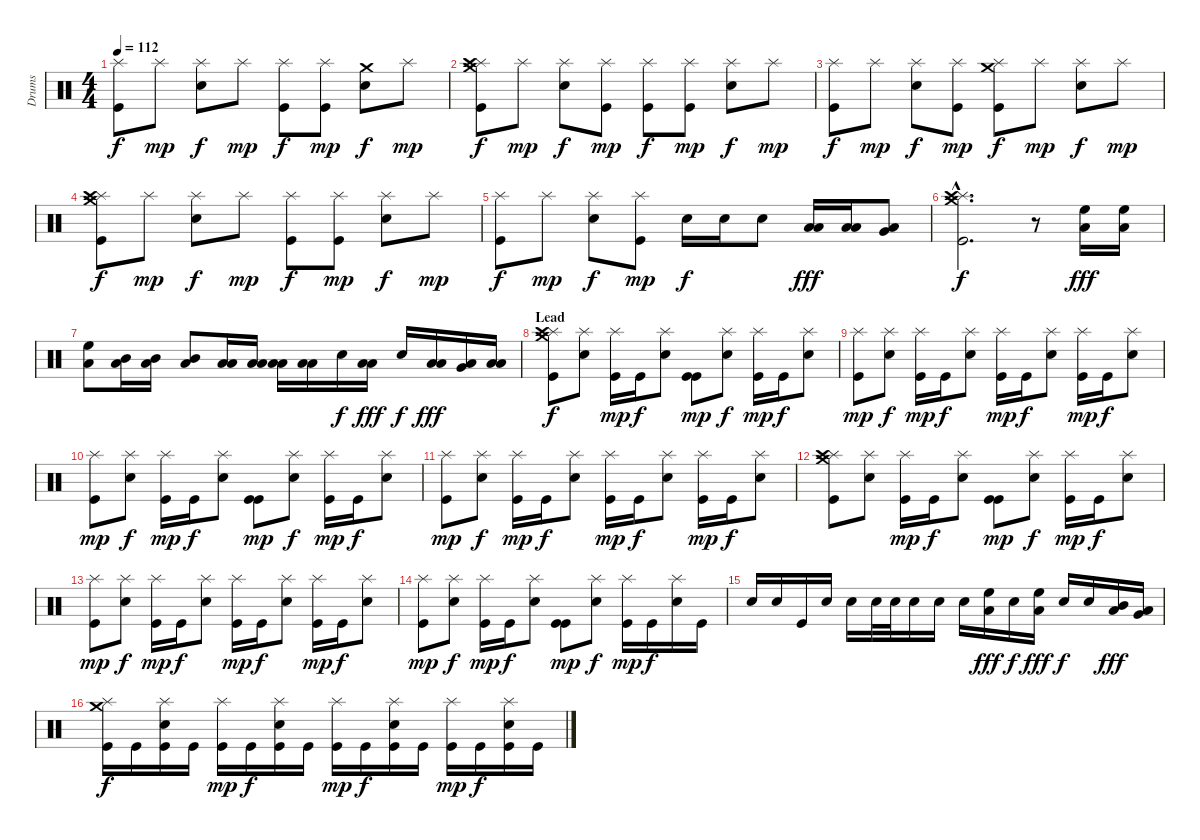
\track ("Drums" "Drums") {instrument percussion}
\staff {score}
\articulation defaults
\ts (4 4)
\tempo 112
\clef neutral
\ks c
("Splash (hit)" "Kick (hit)").8{dy f} "Splash (hit)".8{dy mp} ("Splash (hit)" "Electric Snare (hit)").8{dy f} "Splash (hit)".8{dy mp} ("Splash (hit)" "Kick (hit)").8{dy f} ("Splash (hit)" "Kick (hit)").8{dy mp} ("Crash medium (hit)" "Electric Snare (hit)").8{dy f} "Splash (hit)".8{dy mp} |
("Crash medium (hit)" "Splash (hit)" "Crash high (hit)" "Kick (hit)").8{dy f} "Splash (hit)".8{dy mp} ("Splash (hit)" "Electric Snare (hit)").8{dy f} ("Splash (hit)" "Kick (hit)").8{dy mp} ("Splash (hit)" "Kick (hit)").8{dy f} ("Splash (hit)" "Kick (hit)").8{dy mp} ("Splash (hit)" "Electric Snare (hit)").8{dy f} "Splash (hit)".8{dy mp} |
("Splash (hit)" "Kick (hit)").8{dy f} "Splash (hit)".8{dy mp} ("Splash (hit)" "Electric Snare (hit)").8{dy f} ("Splash (hit)" "Kick (hit)").8{dy mp} ("Crash medium (hit)" "Splash (hit)" "Kick (hit)").8{dy f} "Splash (hit)".8{dy mp} ("Splash (hit)" "Electric Snare (hit)").8{dy f} "Splash (hit)".8{dy mp} |
("Crash medium (hit)" "Splash (hit)" "Crash high (hit)" "Kick (hit)").8{dy f} "Splash (hit)".8{dy mp} ("Splash (hit)" "Electric Snare (hit)").8{dy f} "Splash (hit)".8{dy mp} ("Splash (hit)" "Kick (hit)").8{dy f} ("Splash (hit)" "Kick (hit)").8{dy mp} ("Splash (hit)" "Electric Snare (hit)").8{dy f} "Splash (hit)".8{dy mp} |
("Splash (hit)" "Kick (hit)").8{dy f} "Splash (hit)".8{dy mp} ("Splash (hit)" "Electric Snare (hit)").8{dy f} ("Splash (hit)" "Kick (hit)").8{dy mp} "Electric Snare (hit)".16{dy f} "Electric Snare (hit)".16 "Electric Snare (hit)".8 ("Low Floor Tom (hit)" "Low Tom (hit)").16{dy fff} ("Low Floor Tom (hit)" "Low Tom (hit)").16 ("Low Floor Tom (hit)" "Very Low Tom (hit)").8 |
("Crash medium (hit)"{hac} "Splash (hit)"{hac} "Crash high (hit)"{hac} "Kick (hit)"{hac}).2{d dy f} r.8 ("Low Floor Tom (hit)" "High Floor Tom (hit)").16{dy fff} ("Low Floor Tom (hit)" "High Floor Tom (hit)").16 |
("Low Floor Tom (hit)" "High Floor Tom (hit)").8 ("Low Floor Tom (hit)" "Mid Tom (hit)").16 ("Low Floor Tom (hit)" "Mid Tom (hit)").16 ("Low Floor Tom (hit)" "Mid Tom (hit)").8 ("Low Floor Tom (hit)" "Low Tom (hit)").16 ("Low Floor Tom (hit)" "Low Tom (hit)").16 ("Low Floor Tom (hit)" "Low Tom (hit)").16 ("Low Floor Tom (hit)" "Low Tom (hit)").16 "Electric Snare (hit)".16{dy f} ("Low Floor Tom (hit)" "Low Tom (hit)").16{dy fff} "Electric Snare (hit)".16{dy f} ("Low Floor Tom (hit)" "Low Tom (hit)").16{dy fff} ("Low Floor Tom (hit)" "Very Low Tom (hit)").16 ("Low Floor Tom (hit)" "Low Floor Tom (hit)").16 |
\section ("" "Lead")
("Crash medium (hit)" "Splash (hit)" "Crash high (hit)" "Kick (hit)").8{dy f} ("Splash (hit)" "Electric Snare (hit)").8 ("Splash (hit)" "Kick (hit)").16{dy mp} "Kick (hit)".16{dy f} ("Splash (hit)" "Electric Snare (hit)").8 ("Kick (hit)" "Kick (hit)").8{dy mp} ("Splash (hit)" "Electric Snare (hit)").8{dy f} ("Splash (hit)" "Kick (hit)").16{dy mp} "Kick (hit)".16{dy f} ("Splash (hit)" "Electric Snare (hit)").8 |
("Splash (hit)" "Kick (hit)").8{dy mp} ("Splash (hit)" "Electric Snare (hit)").8{dy f} ("Splash (hit)" "Kick (hit)").16{dy mp} "Kick (hit)".16{dy f} ("Splash (hit)" "Electric Snare (hit)").8 ("Splash (hit)" "Kick (hit)").16{dy mp} "Kick (hit)".16{dy f} ("Splash (hit)" "Electric Snare (hit)").8 ("Splash (hit)" "Kick (hit)").16{dy mp} "Kick (hit)".16{dy f} ("Splash (hit)" "Electric Snare (hit)").8 |
("Splash (hit)" "Kick (hit)").8{dy mp} ("Splash (hit)" "Electric Snare (hit)").8{dy f} ("Splash (hit)" "Kick (hit)").16{dy mp} "Kick (hit)".16{dy f} ("Splash (hit)" "Electric Snare (hit)").8 ("Kick (hit)" "Kick (hit)").8{dy mp} ("Splash (hit)" "Electric Snare (hit)").8{dy f} ("Splash (hit)" "Kick (hit)").16{dy mp} "Kick (hit)".16{dy f} ("Splash (hit)" "Electric Snare (hit)").8 |
("Splash (hit)" "Kick (hit)").8{dy mp} ("Splash (hit)" "Electric Snare (hit)").8{dy f} ("Splash (hit)" "Kick (hit)").16{dy mp} "Kick (hit)".16{dy f} ("Splash (hit)" "Electric Snare (hit)").8 ("Splash (hit)" "Kick (hit)").16{dy mp} "Kick (hit)".16{dy f} ("Splash (hit)" "Electric Snare (hit)").8 ("Splash (hit)" "Kick (hit)").16{dy mp} "Kick (hit)".16{dy f} ("Splash (hit)" "Electric Snare (hit)").8 |
("Crash medium (hit)" "Splash (hit)" "Crash high (hit)" "Kick (hit)").8 ("Splash (hit)" "Electric Snare (hit)").8 ("Splash (hit)" "Kick (hit)").16{dy mp} "Kick (hit)".16{dy f} ("Splash (hit)" "Electric Snare (hit)").8 ("Kick (hit)" "Kick (hit)").8{dy mp} ("Splash (hit)" "Electric Snare (hit)").8{dy f} ("Splash (hit)" "Kick (hit)").16{dy mp} "Kick (hit)".16{dy f} ("Splash (hit)" "Electric Snare (hit)").8 |
("Splash (hit)" "Kick (hit)").8{dy mp} ("Splash (hit)" "Electric Snare (hit)").8{dy f} ("Splash (hit)" "Kick (hit)").16{dy mp} "Kick (hit)".16{dy f} ("Splash (hit)" "Electric Snare (hit)").8 ("Splash (hit)" "Kick (hit)").16{dy mp} "Kick (hit)".16{dy f} ("Splash (hit)" "Electric Snare (hit)").8 ("Splash (hit)" "Kick (hit)").16{dy mp} "Kick (hit)".16{dy f} ("Splash (hit)" "Electric Snare (hit)").8 |
("Splash (hit)" "Kick (hit)").8{dy mp} ("Splash (hit)" "Electric Snare (hit)").8{dy f} ("Splash (hit)" "Kick (hit)").16{dy mp} "Kick (hit)".16{dy f} ("Splash (hit)" "Electric Snare (hit)").8 ("Kick (hit)" "Kick (hit)").8{dy mp} ("Splash (hit)" "Electric Snare (hit)").8{dy f} ("Splash (hit)" "Kick (hit)").16{dy mp} "Kick (hit)".16{dy f} ("Splash (hit)" "Electric Snare (hit)").16 "Kick (hit)".16 |
"Electric Snare (hit)".16 "Electric Snare (hit)".16 "Kick (hit)".16 "Electric Snare (hit)".16 "Electric Snare (hit)".16 "Electric Snare (hit)".32 "Electric Snare (hit)".32 "Electric Snare (hit)".16 "Electric Snare (hit)".16 "Electric Snare (hit)".16 ("Low Floor Tom (hit)" "High Floor Tom (hit)").16{dy fff} "Electric Snare (hit)".16{dy f} ("Low Floor Tom (hit)" "High Floor Tom (hit)").16{dy fff} "Electric Snare (hit)".16{dy f} "Electric Snare (hit)".16 ("Low Floor Tom (hit)" "Mid Tom (hit)").16{dy fff} ("Low Floor Tom (hit)" "Very Low Tom (hit)").16 |
("Crash medium (hit)" "Splash (hit)" "Kick (hit)").16{dy f} "Kick (hit)".16 ("Splash (hit)" "Electric Snare (hit)" "Kick (hit)").16 "Kick (hit)".16 ("Splash (hit)" "Kick (hit)").16{dy mp} "Kick (hit)".16{dy f} ("Splash (hit)" "Electric Snare (hit)" "Kick (hit)").16 "Kick (hit)".16 ("Splash (hit)" "Kick (hit)").16{dy mp} "Kick (hit)".16{dy f} ("Splash (hit)" "Electric Snare (hit)" "Kick (hit)").16 "Kick (hit)".16 ("Splash (hit)" "Kick (hit)").16{dy mp} "Kick (hit)".16{dy f} ("Splash (hit)" "Electric Snare (hit)" "Kick (hit)").16 "Kick (hit)".16
